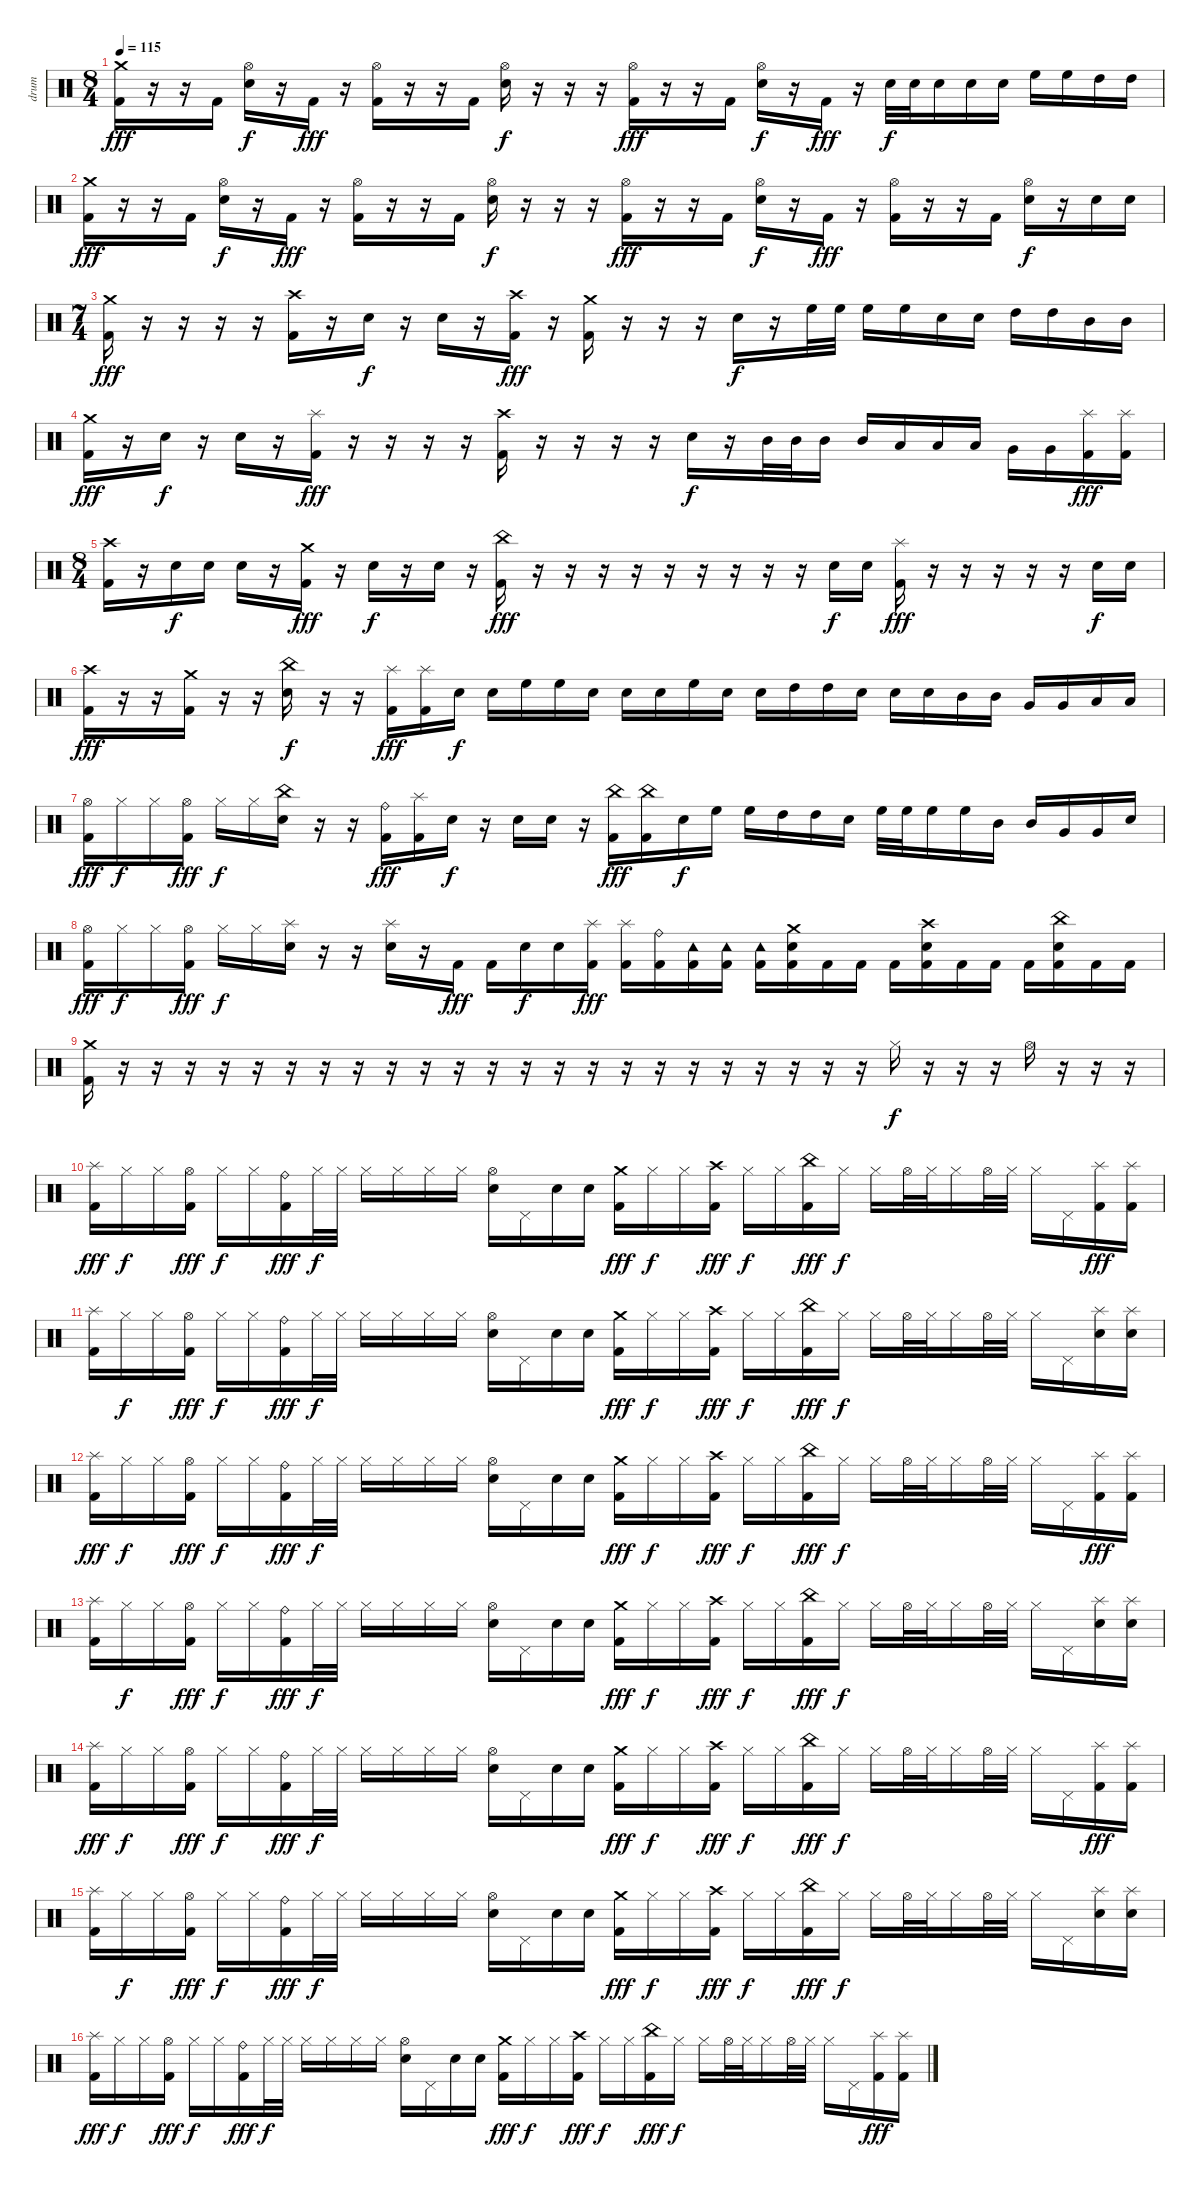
\track ("drum" "drum") {instrument percussion}
\staff {score}
\articulation defaults
\ts (8 4)
\tempo 115
\clef neutral
\ks c
("Crash medium (hit)" "Kick (hit) 2").16{dy fff} r.16 r.16 "Kick (hit) 2".16 ("Hi-Hat (open)" "Electric Snare (hit)").16{dy f} r.16 "Kick (hit) 2".16{dy fff} r.16 ("Hi-Hat (open)" "Kick (hit) 2").16 r.16 r.16 "Kick (hit) 2".16 ("Hi-Hat (open)" "Electric Snare (hit)").16{dy f} r.16 r.16 r.16 ("Hi-Hat (open)" "Kick (hit) 2").16{dy fff} r.16 r.16 "Kick (hit) 2".16 ("Hi-Hat (open)" "Electric Snare (hit)").16{dy f} r.16 "Kick (hit) 2".16{dy fff} r.16 "Electric Snare (hit)".32{dy f} "Electric Snare (hit)".32 "Electric Snare (hit)".16 "Electric Snare (hit)".16 "Electric Snare (hit)".16 "High Floor Tom (hit)".16 "High Floor Tom (hit)".16 "High Tom (hit)".16 "High Tom (hit)".16 |
("Crash medium (hit)" "Kick (hit) 2").16{dy fff} r.16 r.16 "Kick (hit) 2".16 ("Hi-Hat (open)" "Electric Snare (hit)").16{dy f} r.16 "Kick (hit) 2".16{dy fff} r.16 ("Hi-Hat (open)" "Kick (hit) 2").16 r.16 r.16 "Kick (hit) 2".16 ("Hi-Hat (open)" "Electric Snare (hit)").16{dy f} r.16 r.16 r.16 ("Hi-Hat (open)" "Kick (hit) 2").16{dy fff} r.16 r.16 "Kick (hit) 2".16 ("Hi-Hat (open)" "Electric Snare (hit)").16{dy f} r.16 "Kick (hit) 2".16{dy fff} r.16 ("Hi-Hat (open)" "Kick (hit) 2").16 r.16 r.16 "Kick (hit) 2".16 ("Hi-Hat (open)" "Electric Snare (hit)").16{dy f} r.16 "Electric Snare (hit)".16 "Electric Snare (hit)".16 |
\ts (7 4)
("Crash medium (hit)" "Kick (hit) 2").16{dy fff} r.16 r.16 r.16 r.16 ("Crash high (hit)" "Kick (hit) 2").16 r.16 "Electric Snare (hit)".16{dy f} r.16 "Electric Snare (hit)".16 r.16 ("Crash high (hit)" "Kick (hit) 2").16{dy fff} r.16 ("Crash medium (hit)" "Kick (hit) 2").16 r.16 r.16 r.16 "Electric Snare (hit)".16{dy f} r.16 "High Floor Tom (hit)".32 "High Floor Tom (hit)".32 "High Floor Tom (hit)".16 "High Floor Tom (hit)".16 "Electric Snare (hit)".16 "Electric Snare (hit)".16 "High Tom (hit)".16 "High Tom (hit)".16 "Mid Tom (hit)".16 "Mid Tom (hit)".16 |
("Crash medium (hit)" "Kick (hit) 2").16{dy fff} r.16 "Electric Snare (hit)".16{dy f} r.16 "Electric Snare (hit)".16 r.16 ("Splash (hit)" "Kick (hit) 2").16{dy fff} r.16 r.16 r.16 r.16 ("Crash high (hit)" "Kick (hit) 2").16 r.16 r.16 r.16 r.16 "Electric Snare (hit)".16{dy f} r.16 "Mid Tom (hit)".32 "Mid Tom (hit)".32 "Mid Tom (hit)".16 "Mid Tom (hit)".16 "Low Tom (hit)".16 "Low Tom (hit)".16 "Low Tom (hit)".16 "Very Low Tom (hit)".16 "Very Low Tom (hit)".16 ("Splash (hit)" "Kick (hit) 2").16{dy fff} ("Splash (hit)" "Kick (hit) 2").16 |
\ts (8 4)
("Crash high (hit)" "Kick (hit) 2").16 r.16 "Electric Snare (hit)".16{dy f} "Electric Snare (hit)".16 "Electric Snare (hit)".16 r.16 ("Crash medium (hit)" "Kick (hit) 2").16{dy fff} r.16 "Electric Snare (hit)".16{dy f} r.16 "Electric Snare (hit)".16 r.16 ("China (hit)" "Kick (hit) 2").16{dy fff} r.16 r.16 r.16 r.16 r.16 r.16 r.16 r.16 r.16 "Electric Snare (hit)".16{dy f} "Electric Snare (hit)".16 ("Splash (hit)" "Kick (hit) 2").16{dy fff} r.16 r.16 r.16 r.16 r.16 "Electric Snare (hit)".16{dy f} "Electric Snare (hit)".16 |
("Crash high (hit)" "Kick (hit) 2").16{dy fff} r.16 r.16 ("Crash medium (hit)" "Kick (hit) 2").16 r.16 r.16 ("China (hit)" "Electric Snare (hit)").16{dy f} r.16 r.16 ("Splash (hit)" "Kick (hit) 2").16{dy fff} ("Splash (hit)" "Kick (hit) 2").16 "Electric Snare (hit)".16{dy f} "Electric Snare (hit)".16 "High Floor Tom (hit)".16 "High Floor Tom (hit)".16 "Electric Snare (hit)".16 "Electric Snare (hit)".16 "Electric Snare (hit)".16 "High Floor Tom (hit)".16 "Electric Snare (hit)".16 "Electric Snare (hit)".16 "High Tom (hit)".16 "High Tom (hit)".16 "Electric Snare (hit)".16 "Electric Snare (hit)".16 "Electric Snare (hit)".16 "Mid Tom (hit)".16 "Mid Tom (hit)".16 "Very Low Tom (hit)".16 "Very Low Tom (hit)".16 "Low Floor Tom (hit)".16 "Low Floor Tom (hit)".16 |
("Hi-Hat (open)" "Kick (hit) 2").16{dy fff} "Hi-Hat (closed)".16{dy f} "Hi-Hat (closed)".16 ("Hi-Hat (open)" "Kick (hit) 2").16{dy fff} "Hi-Hat (closed)".16{dy f} "Hi-Hat (closed)".16 ("China (hit)" "Electric Snare (hit)").16 r.16 r.16 ("Ride (bell)" "Kick (hit) 2").16{dy fff} ("Splash (hit)" "Kick (hit) 2").16 "Electric Snare (hit)".16{dy f} r.16 "Electric Snare (hit)".16 "Electric Snare (hit)".16 r.16 ("China (hit)" "Kick (hit) 2").16{dy fff} ("China (hit)" "Kick (hit) 2").16 "Electric Snare (hit)".16{dy f} "High Floor Tom (hit)".16 "High Floor Tom (hit)".16 "High Tom (hit)".16 "High Tom (hit)".16 "Electric Snare (hit)".16 "High Floor Tom (hit)".32 "High Floor Tom (hit)".32 "High Floor Tom (hit)".16 "High Floor Tom (hit)".16 "Mid Tom (hit)".16 "Mid Tom (hit)".16 "Very Low Tom (hit)".16 "Very Low Tom (hit)".16 "Electric Snare (hit)".16 |
("Hi-Hat (open)" "Kick (hit) 2").16{dy fff} "Hi-Hat (closed)".16{dy f} "Hi-Hat (closed)".16 ("Hi-Hat (open)" "Kick (hit) 2").16{dy fff} "Hi-Hat (closed)".16{dy f} "Hi-Hat (closed)".16 ("Splash (hit)" "Electric Snare (hit)").16 r.16 r.16 ("Splash (hit)" "Electric Snare (hit)").16 r.16 "Kick (hit) 2".16{dy fff} "Kick (hit) 2".16 "Electric Snare (hit)".16{dy f} "Electric Snare (hit)".16 ("Splash (hit)" "Kick (hit) 2").16{dy fff} ("Splash (hit)" "Kick (hit) 2").16 ("Ride (bell)" "Kick (hit) 2").16 ("Tambourine (hit)" "Kick (hit) 2").16 ("Tambourine (hit)" "Kick (hit) 2").16 ("Tambourine (hit)" "Kick (hit) 2").16 ("Crash medium (hit)" "Electric Snare (hit)" "Kick (hit) 2").16 "Kick (hit) 2".16 "Kick (hit) 2".16 "Kick (hit) 2".16 ("Crash high (hit)" "Electric Snare (hit)" "Kick (hit) 2").16 "Kick (hit) 2".16 "Kick (hit) 2".16 "Kick (hit) 2".16 ("China (hit)" "Electric Snare (hit)" "Kick (hit) 2").16 "Kick (hit) 2".16 "Kick (hit) 2".16 |
("Crash medium (hit)" "Kick (hit) 2").16 r.16 r.16 r.16 r.16 r.16 r.16 r.16 r.16 r.16 r.16 r.16 r.16 r.16 r.16 r.16 r.16 r.16 r.16 r.16 r.16 r.16 r.16 r.16 "Hi-Hat (closed)".16{dy f} r.16 r.16 r.16 "Hi-Hat (open)".16 r.16 r.16 r.16 |
("Splash (hit)" "Kick (hit) 2").16{dy fff} "Hi-Hat (closed)".16{dy f} "Hi-Hat (closed)".16 ("Hi-Hat (open)" "Kick (hit) 2").16{dy fff} "Hi-Hat (closed)".16{dy f} "Hi-Hat (closed)".16 ("Ride (bell)" "Kick (hit) 2").16{dy fff} "Hi-Hat (closed)".32{dy f} "Hi-Hat (closed)".32 "Hi-Hat (closed)".16 "Hi-Hat (closed)".16 "Hi-Hat (closed)".16 "Hi-Hat (closed)".16 ("Hi-Hat (open)" "Electric Snare (hit)").16 "Pedal Hi-Hat (hit)".16 "Electric Snare (hit)".16 "Electric Snare (hit)".16 ("Crash medium (hit)" "Kick (hit) 2").16{dy fff} "Hi-Hat (closed)".16{dy f} "Hi-Hat (closed)".16 ("Crash high (hit)" "Kick (hit) 2").16{dy fff} "Hi-Hat (closed)".16{dy f} "Hi-Hat (closed)".16 ("China (hit)" "Kick (hit) 2").16{dy fff} "Hi-Hat (closed)".16{dy f} "Hi-Hat (closed)".16 "Hi-Hat (open)".32 "Hi-Hat (closed)".32 "Hi-Hat (closed)".16 "Hi-Hat (open)".32 "Hi-Hat (closed)".32 "Hi-Hat (closed)".16 "Pedal Hi-Hat (hit)".16 ("Splash (hit)" "Kick (hit) 2").16{dy fff} ("Splash (hit)" "Kick (hit) 2").16 |
("Splash (hit)" "Kick (hit) 2").16 "Hi-Hat (closed)".16{dy f} "Hi-Hat (closed)".16 ("Hi-Hat (open)" "Kick (hit) 2").16{dy fff} "Hi-Hat (closed)".16{dy f} "Hi-Hat (closed)".16 ("Ride (bell)" "Kick (hit) 2").16{dy fff} "Hi-Hat (closed)".32{dy f} "Hi-Hat (closed)".32 "Hi-Hat (closed)".16 "Hi-Hat (closed)".16 "Hi-Hat (closed)".16 "Hi-Hat (closed)".16 ("Hi-Hat (open)" "Electric Snare (hit)").16 "Pedal Hi-Hat (hit)".16 "Electric Snare (hit)".16 "Electric Snare (hit)".16 ("Crash medium (hit)" "Kick (hit) 2").16{dy fff} "Hi-Hat (closed)".16{dy f} "Hi-Hat (closed)".16 ("Crash high (hit)" "Kick (hit) 2").16{dy fff} "Hi-Hat (closed)".16{dy f} "Hi-Hat (closed)".16 ("China (hit)" "Kick (hit) 2").16{dy fff} "Hi-Hat (closed)".16{dy f} "Hi-Hat (closed)".16 "Hi-Hat (open)".32 "Hi-Hat (closed)".32 "Hi-Hat (closed)".16 "Hi-Hat (open)".32 "Hi-Hat (closed)".32 "Hi-Hat (closed)".16 "Pedal Hi-Hat (hit)".16 ("Splash (hit)" "Electric Snare (hit)").16 ("Splash (hit)" "Electric Snare (hit)").16 |
("Splash (hit)" "Kick (hit) 2").16{dy fff} "Hi-Hat (closed)".16{dy f} "Hi-Hat (closed)".16 ("Hi-Hat (open)" "Kick (hit) 2").16{dy fff} "Hi-Hat (closed)".16{dy f} "Hi-Hat (closed)".16 ("Ride (bell)" "Kick (hit) 2").16{dy fff} "Hi-Hat (closed)".32{dy f} "Hi-Hat (closed)".32 "Hi-Hat (closed)".16 "Hi-Hat (closed)".16 "Hi-Hat (closed)".16 "Hi-Hat (closed)".16 ("Hi-Hat (open)" "Electric Snare (hit)").16 "Pedal Hi-Hat (hit)".16 "Electric Snare (hit)".16 "Electric Snare (hit)".16 ("Crash medium (hit)" "Kick (hit) 2").16{dy fff} "Hi-Hat (closed)".16{dy f} "Hi-Hat (closed)".16 ("Crash high (hit)" "Kick (hit) 2").16{dy fff} "Hi-Hat (closed)".16{dy f} "Hi-Hat (closed)".16 ("China (hit)" "Kick (hit) 2").16{dy fff} "Hi-Hat (closed)".16{dy f} "Hi-Hat (closed)".16 "Hi-Hat (open)".32 "Hi-Hat (closed)".32 "Hi-Hat (closed)".16 "Hi-Hat (open)".32 "Hi-Hat (closed)".32 "Hi-Hat (closed)".16 "Pedal Hi-Hat (hit)".16 ("Splash (hit)" "Kick (hit) 2").16{dy fff} ("Splash (hit)" "Kick (hit) 2").16 |
("Splash (hit)" "Kick (hit) 2").16 "Hi-Hat (closed)".16{dy f} "Hi-Hat (closed)".16 ("Hi-Hat (open)" "Kick (hit) 2").16{dy fff} "Hi-Hat (closed)".16{dy f} "Hi-Hat (closed)".16 ("Ride (bell)" "Kick (hit) 2").16{dy fff} "Hi-Hat (closed)".32{dy f} "Hi-Hat (closed)".32 "Hi-Hat (closed)".16 "Hi-Hat (closed)".16 "Hi-Hat (closed)".16 "Hi-Hat (closed)".16 ("Hi-Hat (open)" "Electric Snare (hit)").16 "Pedal Hi-Hat (hit)".16 "Electric Snare (hit)".16 "Electric Snare (hit)".16 ("Crash medium (hit)" "Kick (hit) 2").16{dy fff} "Hi-Hat (closed)".16{dy f} "Hi-Hat (closed)".16 ("Crash high (hit)" "Kick (hit) 2").16{dy fff} "Hi-Hat (closed)".16{dy f} "Hi-Hat (closed)".16 ("China (hit)" "Kick (hit) 2").16{dy fff} "Hi-Hat (closed)".16{dy f} "Hi-Hat (closed)".16 "Hi-Hat (open)".32 "Hi-Hat (closed)".32 "Hi-Hat (closed)".16 "Hi-Hat (open)".32 "Hi-Hat (closed)".32 "Hi-Hat (closed)".16 "Pedal Hi-Hat (hit)".16 ("Splash (hit)" "Electric Snare (hit)").16 ("Splash (hit)" "Electric Snare (hit)").16 |
("Splash (hit)" "Kick (hit) 2").16{dy fff} "Hi-Hat (closed)".16{dy f} "Hi-Hat (closed)".16 ("Hi-Hat (open)" "Kick (hit) 2").16{dy fff} "Hi-Hat (closed)".16{dy f} "Hi-Hat (closed)".16 ("Ride (bell)" "Kick (hit) 2").16{dy fff} "Hi-Hat (closed)".32{dy f} "Hi-Hat (closed)".32 "Hi-Hat (closed)".16 "Hi-Hat (closed)".16 "Hi-Hat (closed)".16 "Hi-Hat (closed)".16 ("Hi-Hat (open)" "Electric Snare (hit)").16 "Pedal Hi-Hat (hit)".16 "Electric Snare (hit)".16 "Electric Snare (hit)".16 ("Crash medium (hit)" "Kick (hit) 2").16{dy fff} "Hi-Hat (closed)".16{dy f} "Hi-Hat (closed)".16 ("Crash high (hit)" "Kick (hit) 2").16{dy fff} "Hi-Hat (closed)".16{dy f} "Hi-Hat (closed)".16 ("China (hit)" "Kick (hit) 2").16{dy fff} "Hi-Hat (closed)".16{dy f} "Hi-Hat (closed)".16 "Hi-Hat (open)".32 "Hi-Hat (closed)".32 "Hi-Hat (closed)".16 "Hi-Hat (open)".32 "Hi-Hat (closed)".32 "Hi-Hat (closed)".16 "Pedal Hi-Hat (hit)".16 ("Splash (hit)" "Kick (hit) 2").16{dy fff} ("Splash (hit)" "Kick (hit) 2").16 |
("Splash (hit)" "Kick (hit) 2").16 "Hi-Hat (closed)".16{dy f} "Hi-Hat (closed)".16 ("Hi-Hat (open)" "Kick (hit) 2").16{dy fff} "Hi-Hat (closed)".16{dy f} "Hi-Hat (closed)".16 ("Ride (bell)" "Kick (hit) 2").16{dy fff} "Hi-Hat (closed)".32{dy f} "Hi-Hat (closed)".32 "Hi-Hat (closed)".16 "Hi-Hat (closed)".16 "Hi-Hat (closed)".16 "Hi-Hat (closed)".16 ("Hi-Hat (open)" "Electric Snare (hit)").16 "Pedal Hi-Hat (hit)".16 "Electric Snare (hit)".16 "Electric Snare (hit)".16 ("Crash medium (hit)" "Kick (hit) 2").16{dy fff} "Hi-Hat (closed)".16{dy f} "Hi-Hat (closed)".16 ("Crash high (hit)" "Kick (hit) 2").16{dy fff} "Hi-Hat (closed)".16{dy f} "Hi-Hat (closed)".16 ("China (hit)" "Kick (hit) 2").16{dy fff} "Hi-Hat (closed)".16{dy f} "Hi-Hat (closed)".16 "Hi-Hat (open)".32 "Hi-Hat (closed)".32 "Hi-Hat (closed)".16 "Hi-Hat (open)".32 "Hi-Hat (closed)".32 "Hi-Hat (closed)".16 "Pedal Hi-Hat (hit)".16 ("Splash (hit)" "Electric Snare (hit)").16 ("Splash (hit)" "Electric Snare (hit)").16 |
("Splash (hit)" "Kick (hit) 2").16{dy fff} "Hi-Hat (closed)".16{dy f} "Hi-Hat (closed)".16 ("Hi-Hat (open)" "Kick (hit) 2").16{dy fff} "Hi-Hat (closed)".16{dy f} "Hi-Hat (closed)".16 ("Ride (bell)" "Kick (hit) 2").16{dy fff} "Hi-Hat (closed)".32{dy f} "Hi-Hat (closed)".32 "Hi-Hat (closed)".16 "Hi-Hat (closed)".16 "Hi-Hat (closed)".16 "Hi-Hat (closed)".16 ("Hi-Hat (open)" "Electric Snare (hit)").16 "Pedal Hi-Hat (hit)".16 "Electric Snare (hit)".16 "Electric Snare (hit)".16 ("Crash medium (hit)" "Kick (hit) 2").16{dy fff} "Hi-Hat (closed)".16{dy f} "Hi-Hat (closed)".16 ("Crash high (hit)" "Kick (hit) 2").16{dy fff} "Hi-Hat (closed)".16{dy f} "Hi-Hat (closed)".16 ("China (hit)" "Kick (hit) 2").16{dy fff} "Hi-Hat (closed)".16{dy f} "Hi-Hat (closed)".16 "Hi-Hat (open)".32 "Hi-Hat (closed)".32 "Hi-Hat (closed)".16 "Hi-Hat (open)".32 "Hi-Hat (closed)".32 "Hi-Hat (closed)".16 "Pedal Hi-Hat (hit)".16 ("Splash (hit)" "Kick (hit) 2").16{dy fff} ("Splash (hit)" "Kick (hit) 2").16
